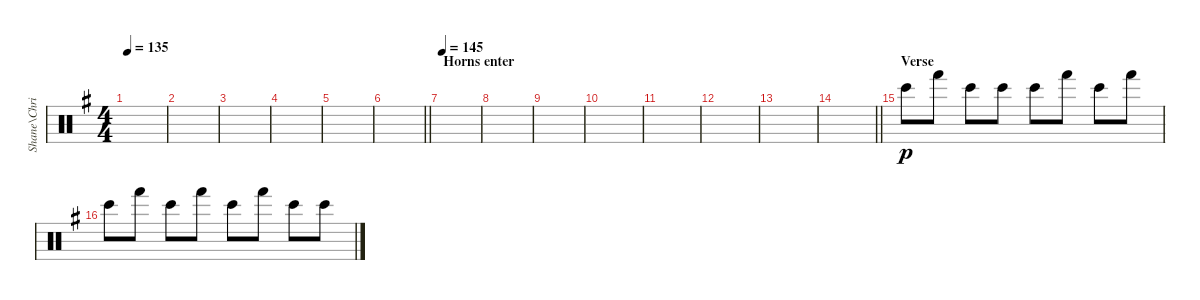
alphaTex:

\track ("Shane\\Chris - Percussion" "Shane\\Chri") {instrument percussion}
\staff {score}
\articulation defaults
\ts (4 4)
\tempo 135
\clef neutral
\ks g
|
|
|
|
|
\barLineRight lightlight
|
\section ("" "Horns enter")
\tempo 145
|
|
|
|
|
|
|
\barLineRight lightlight
|
\section ("" "Verse")
"Bongo High (hit)".8{dy p} "Hand (hit)".8 "Bongo High (hit)".8 "Bongo High (hit)".8 "Bongo High (hit)".8 "Hand (hit)".8 "Bongo High (hit)".8 "Hand (hit)".8 |
"Bongo High (hit)".8 "Hand (hit)".8 "Bongo High (hit)".8 "Hand (hit)".8 "Bongo High (hit)".8 "Hand (hit)".8 "Bongo High (hit)".8 "Bongo High (hit)".8
